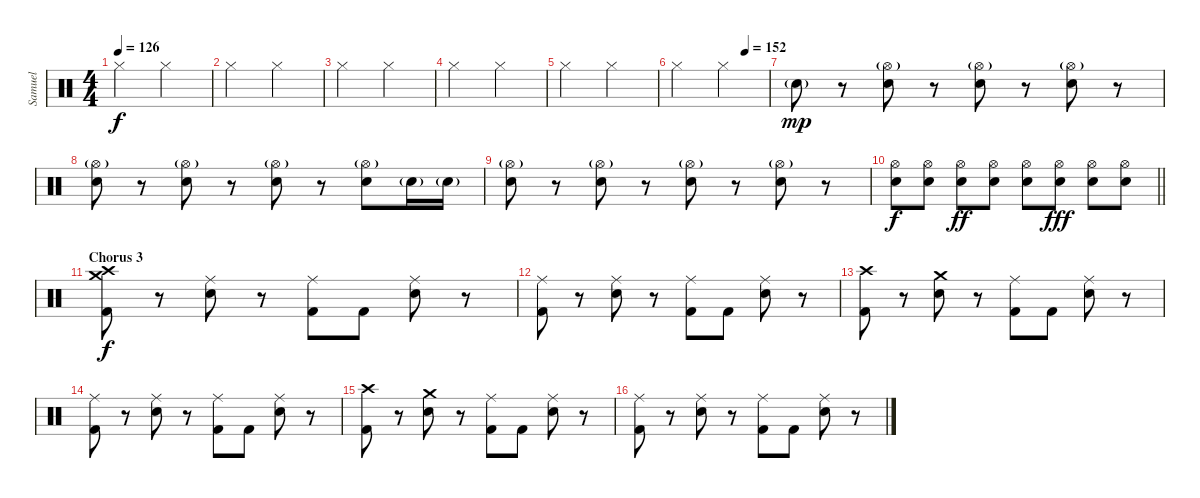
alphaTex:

\track ("Samuel" "Samuel") {instrument percussion}
\staff {score}
\articulation defaults
\ts (4 4)
\tempo 126
\clef neutral
\ks c "Hi-Hat (closed)".2{dy f} "Hi-Hat (closed)".2
|
"Hi-Hat (closed)".2 "Hi-Hat (closed)".2 |
"Hi-Hat (closed)".2 "Hi-Hat (closed)".2 |
"Hi-Hat (closed)".2 "Hi-Hat (closed)".2 |
"Hi-Hat (closed)".2 "Hi-Hat (closed)".2 |
\tempo (152 0.75)
"Hi-Hat (closed)".2 "Hi-Hat (closed)".2 |
"Snare (hit) 2"{g}.8{dy mp} r.8 ("Hi-Hat (open)"{g} "Snare (hit) 2").8 r.8 ("Hi-Hat (open)"{g} "Snare (hit) 2").8 r.8 ("Hi-Hat (open)"{g} "Snare (hit) 2").8 r.8 |
("Hi-Hat (open)"{g} "Snare (hit) 2").8 r.8 ("Hi-Hat (open)"{g} "Snare (hit) 2").8 r.8 ("Hi-Hat (open)"{g} "Snare (hit) 2").8 r.8 ("Hi-Hat (open)"{g} "Snare (hit) 2").8 "Snare (hit) 2"{g}.16 "Snare (hit) 2"{g}.16 |
("Hi-Hat (open)"{g} "Snare (hit) 2").8 r.8 ("Hi-Hat (open)"{g} "Snare (hit) 2").8 r.8 ("Hi-Hat (open)"{g} "Snare (hit) 2").8 r.8 ("Hi-Hat (open)"{g} "Snare (hit) 2").8 r.8 |
\barLineRight lightlight
("Hi-Hat (open)" "Snare (hit) 2").8{dy f} ("Hi-Hat (open)" "Snare (hit) 2").8 ("Hi-Hat (open)" "Snare (hit) 2").8{dy ff} ("Hi-Hat (open)" "Snare (hit) 2").8 ("Hi-Hat (open)" "Snare (hit) 2").8 ("Hi-Hat (open)" "Snare (hit) 2").8{dy fff} ("Hi-Hat (open)" "Snare (hit) 2").8 ("Hi-Hat (open)" "Snare (hit) 2").8 |
\section ("" "Chorus 3")
("Crash medium (hit)" "Crash high (hit)" "Kick (hit) 2").8{dy f} r.8 ("Ride (middle)" "Snare (hit) 2").8 r.8 ("Ride (middle)" "Kick (hit) 2").8 "Kick (hit) 2".8 ("Ride (middle)" "Snare (hit) 2").8 r.8 |
("Ride (middle)" "Kick (hit) 2").8 r.8 ("Ride (middle)" "Snare (hit) 2").8 r.8 ("Ride (middle)" "Kick (hit) 2").8 "Kick (hit) 2".8 ("Ride (middle)" "Snare (hit) 2").8 r.8 |
("Crash high (hit)" "Kick (hit) 2").8 r.8 ("Crash medium (hit)" "Snare (hit) 2").8 r.8 ("Ride (middle)" "Kick (hit) 2").8 "Kick (hit) 2".8 ("Ride (middle)" "Snare (hit) 2").8 r.8 |
("Ride (middle)" "Kick (hit) 2").8 r.8 ("Ride (middle)" "Snare (hit) 2").8 r.8 ("Ride (middle)" "Kick (hit) 2").8 "Kick (hit) 2".8 ("Ride (middle)" "Snare (hit) 2").8 r.8 |
("Crash high (hit)" "Kick (hit) 2").8 r.8 ("Crash medium (hit)" "Snare (hit) 2").8 r.8 ("Ride (middle)" "Kick (hit) 2").8 "Kick (hit) 2".8 ("Ride (middle)" "Snare (hit) 2").8 r.8 |
("Ride (middle)" "Kick (hit) 2").8 r.8 ("Ride (middle)" "Snare (hit) 2").8 r.8 ("Ride (middle)" "Kick (hit) 2").8 "Kick (hit) 2".8 ("Ride (middle)" "Snare (hit) 2").8 r.8
